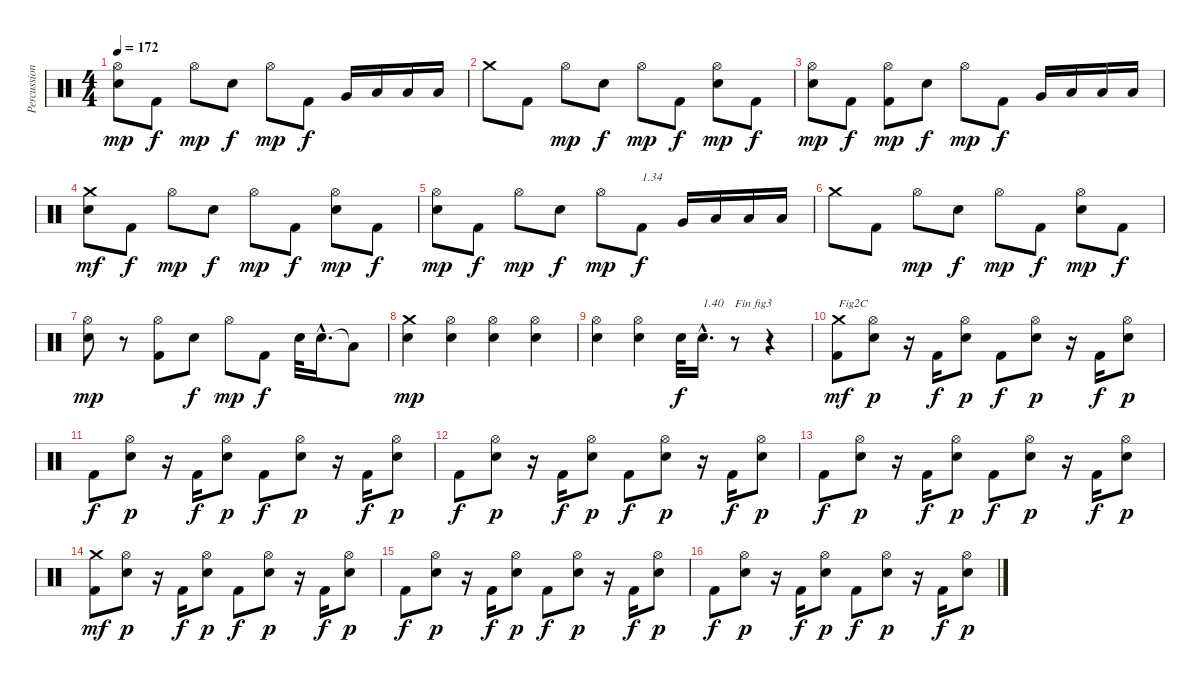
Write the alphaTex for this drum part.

\track ("Percussions" "Percussion") {instrument percussion}
\staff {score}
\articulation defaults
\ts (4 4)
\tempo 172
\clef neutral
\ks c
("Electric Snare (hit)" "Hi-Hat (open)").8{dy mp} "Kick (hit) 2".8{dy f} "Hi-Hat (open)".8{dy mp} "Electric Snare (hit)".8{dy f} "Hi-Hat (open)".8{dy mp} "Kick (hit) 2".8{dy f} "Very Low Tom (hit)".16 "Low Floor Tom (hit)".16 "Low Floor Tom (hit)".16 "Low Floor Tom (hit)".16 |
"Crash medium (hit)".8 "Kick (hit) 2".8 "Hi-Hat (open)".8{dy mp} "Electric Snare (hit)".8{dy f} "Hi-Hat (open)".8{dy mp} "Kick (hit) 2".8{dy f} ("Electric Snare (hit)" "Hi-Hat (open)").8{dy mp} "Kick (hit) 2".8{dy f} |
("Electric Snare (hit)" "Hi-Hat (open)").8{dy mp} "Kick (hit) 2".8{dy f} ("Kick (hit) 2" "Hi-Hat (open)").8{dy mp} "Electric Snare (hit)".8{dy f} "Hi-Hat (open)".8{dy mp} "Kick (hit) 2".8{dy f} "Very Low Tom (hit)".16 "Low Floor Tom (hit)".16 "Low Floor Tom (hit)".16 "Low Floor Tom (hit)".16 |
("Electric Snare (hit)" "Crash medium (hit)").8{dy mf} "Kick (hit) 2".8{dy f} "Hi-Hat (open)".8{dy mp} "Electric Snare (hit)".8{dy f} "Hi-Hat (open)".8{dy mp} "Kick (hit) 2".8{dy f} ("Electric Snare (hit)" "Hi-Hat (open)").8{dy mp} "Kick (hit) 2".8{dy f} |
("Electric Snare (hit)" "Hi-Hat (open)").8{dy mp} "Kick (hit) 2".8{dy f} "Hi-Hat (open)".8{dy mp} "Electric Snare (hit)".8{dy f} "Hi-Hat (open)".8{dy mp} "Kick (hit) 2".8{txt "1.34" dy f} "Very Low Tom (hit)".16 "Low Floor Tom (hit)".16 "Low Floor Tom (hit)".16 "Low Floor Tom (hit)".16 |
"Crash medium (hit)".8 "Kick (hit) 2".8 "Hi-Hat (open)".8{dy mp} "Electric Snare (hit)".8{dy f} "Hi-Hat (open)".8{dy mp} "Kick (hit) 2".8{dy f} ("Electric Snare (hit)" "Hi-Hat (open)").8{dy mp} "Kick (hit) 2".8{dy f} |
("Electric Snare (hit)" "Hi-Hat (open)").8{dy mp} r.8 ("Kick (hit) 2" "Hi-Hat (open)").8 "Electric Snare (hit)".8{dy f} "Hi-Hat (open)".8{dy mp} "Kick (hit) 2".8{dy f} "Electric Snare (hit)".32 "Electric Snare (hit)"{hac}.16{d} "Low Floor Tom (hit)"{t}.8 |
("Electric Snare (hit)" "Crash medium (hit)").4{dy mp} ("Electric Snare (hit)" "Hi-Hat (open)").4 ("Electric Snare (hit)" "Hi-Hat (open)").4 ("Electric Snare (hit)" "Hi-Hat (open)").4 |
("Electric Snare (hit)" "Hi-Hat (open)").4 ("Electric Snare (hit)" "Hi-Hat (open)").4 "Electric Snare (hit)".32{dy f} "Electric Snare (hit)"{hac}.16{d txt "1.40"} r.8{txt "Fin fig3"} r.4 |
("Kick (hit) 2" "Crash medium (hit)").8{txt "Fig2C" dy mf} ("Electric Snare (hit)" "Hi-Hat (open)").8{dy p} r.16 "Kick (hit) 2".16{dy f} ("Electric Snare (hit)" "Hi-Hat (open)").8{dy p} "Kick (hit) 2".8{dy f} ("Electric Snare (hit)" "Hi-Hat (open)").8{dy p} r.16 "Kick (hit) 2".16{dy f} ("Electric Snare (hit)" "Hi-Hat (open)").8{dy p} |
"Kick (hit) 2".8{dy f} ("Electric Snare (hit)" "Hi-Hat (open)").8{dy p} r.16 "Kick (hit) 2".16{dy f} ("Electric Snare (hit)" "Hi-Hat (open)").8{dy p} "Kick (hit) 2".8{dy f} ("Electric Snare (hit)" "Hi-Hat (open)").8{dy p} r.16 "Kick (hit) 2".16{dy f} ("Electric Snare (hit)" "Hi-Hat (open)").8{dy p} |
"Kick (hit) 2".8{dy f} ("Electric Snare (hit)" "Hi-Hat (open)").8{dy p} r.16 "Kick (hit) 2".16{dy f} ("Electric Snare (hit)" "Hi-Hat (open)").8{dy p} "Kick (hit) 2".8{dy f} ("Electric Snare (hit)" "Hi-Hat (open)").8{dy p} r.16 "Kick (hit) 2".16{dy f} ("Electric Snare (hit)" "Hi-Hat (open)").8{dy p} |
"Kick (hit) 2".8{dy f} ("Electric Snare (hit)" "Hi-Hat (open)").8{dy p} r.16 "Kick (hit) 2".16{dy f} ("Electric Snare (hit)" "Hi-Hat (open)").8{dy p} "Kick (hit) 2".8{dy f} ("Electric Snare (hit)" "Hi-Hat (open)").8{dy p} r.16 "Kick (hit) 2".16{dy f} ("Electric Snare (hit)" "Hi-Hat (open)").8{dy p} |
("Kick (hit) 2" "Crash medium (hit)").8{dy mf} ("Electric Snare (hit)" "Hi-Hat (open)").8{dy p} r.16 "Kick (hit) 2".16{dy f} ("Electric Snare (hit)" "Hi-Hat (open)").8{dy p} "Kick (hit) 2".8{dy f} ("Electric Snare (hit)" "Hi-Hat (open)").8{dy p} r.16 "Kick (hit) 2".16{dy f} ("Electric Snare (hit)" "Hi-Hat (open)").8{dy p} |
"Kick (hit) 2".8{dy f} ("Electric Snare (hit)" "Hi-Hat (open)").8{dy p} r.16 "Kick (hit) 2".16{dy f} ("Electric Snare (hit)" "Hi-Hat (open)").8{dy p} "Kick (hit) 2".8{dy f} ("Electric Snare (hit)" "Hi-Hat (open)").8{dy p} r.16 "Kick (hit) 2".16{dy f} ("Electric Snare (hit)" "Hi-Hat (open)").8{dy p} |
"Kick (hit) 2".8{dy f} ("Electric Snare (hit)" "Hi-Hat (open)").8{dy p} r.16 "Kick (hit) 2".16{dy f} ("Electric Snare (hit)" "Hi-Hat (open)").8{dy p} "Kick (hit) 2".8{dy f} ("Electric Snare (hit)" "Hi-Hat (open)").8{dy p} r.16 "Kick (hit) 2".16{dy f} ("Electric Snare (hit)" "Hi-Hat (open)").8{dy p}
